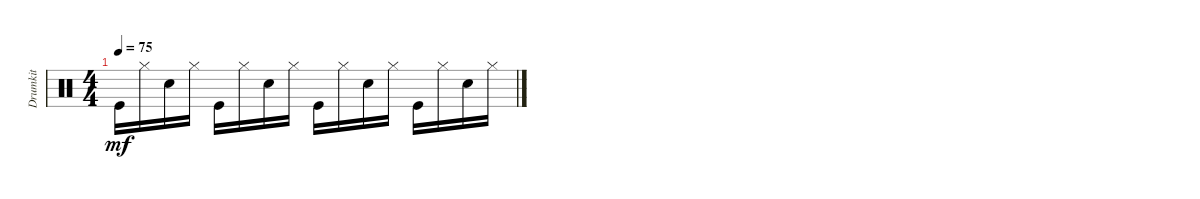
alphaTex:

\track ("Drumkit" "Drumkit") {instrument percussion}
\staff {score}
\articulation defaults
\ts (4 4)
\tempo 75
\clef neutral
\ks c "Kick (hit)".16{dy mf} "Hi-Hat (closed)".16 "Snare (hit) 2".16 "Hi-Hat (closed)".16 "Kick (hit)".16 "Hi-Hat (closed)".16 "Snare (hit) 2".16 "Hi-Hat (closed)".16 "Kick (hit)".16 "Hi-Hat (closed)".16 "Snare (hit) 2".16 "Hi-Hat (closed)".16 "Kick (hit)".16 "Hi-Hat (closed)".16 "Snare (hit) 2".16 "Hi-Hat (closed)".16
